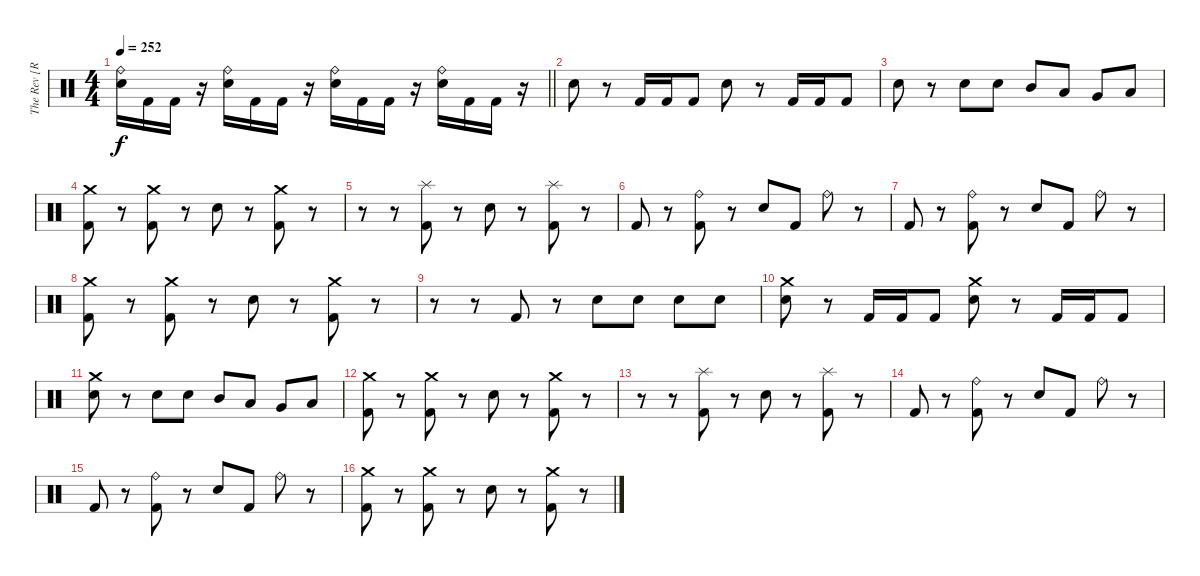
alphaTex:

\track ("The Rev [R.I.P]" "The Rev [R") {instrument percussion}
\staff {score}
\articulation defaults
\ts (4 4)
\tempo 252
\clef neutral
\barLineRight lightlight
\ks c
("Ride (bell)" "Electric Snare (hit)").16{dy f} "Kick (hit) 2".16 "Kick (hit) 2".16 r.16 ("Ride (bell)" "Electric Snare (hit)").16 "Kick (hit) 2".16 "Kick (hit) 2".16 r.16 ("Ride (bell)" "Electric Snare (hit)").16 "Kick (hit) 2".16 "Kick (hit) 2".16 r.16 ("Ride (bell)" "Electric Snare (hit)").16 "Kick (hit) 2".16 "Kick (hit) 2".16 r.16 |
"Electric Snare (hit)".8 r.8 "Kick (hit) 2".16 "Kick (hit) 2".16 "Kick (hit) 2".8 "Electric Snare (hit)".8 r.8 "Kick (hit) 2".16 "Kick (hit) 2".16 "Kick (hit) 2".8 |
"Electric Snare (hit)".8 r.8 "Electric Snare (hit)".8 "Electric Snare (hit)".8 "Mid Tom (hit)".8 "Low Tom (hit)".8 "Very Low Tom (hit)".8 "Low Floor Tom (hit)".8 |
("Crash medium (hit)" "Kick (hit) 2").8 r.8 ("Crash medium (hit)" "Kick (hit) 2").8 r.8 "Electric Snare (hit)".8 r.8 ("Crash medium (hit)" "Kick (hit) 2").8 r.8 |
r.8 r.8 ("Splash (hit)" "Kick (hit) 2").8 r.8 "Electric Snare (hit)".8 r.8 ("Splash (hit)" "Kick (hit) 2").8 r.8 |
"Kick (hit) 2".8 r.8 ("Ride (bell)" "Kick (hit) 2").8 r.8 "Electric Snare (hit)".8 "Kick (hit) 2".8 "Ride (bell)".8 r.8 |
"Kick (hit) 2".8 r.8 ("Ride (bell)" "Kick (hit) 2").8 r.8 "Electric Snare (hit)".8 "Kick (hit) 2".8 "Ride (bell)".8 r.8 |
("Crash medium (hit)" "Kick (hit) 2").8 r.8 ("Crash medium (hit)" "Kick (hit) 2").8 r.8 "Electric Snare (hit)".8 r.8 ("Crash medium (hit)" "Kick (hit) 2").8 r.8 |
r.8 r.8 "Kick (hit) 2".8 r.8 "Electric Snare (hit)".8 "Electric Snare (hit)".8 "Electric Snare (hit)".8 "Electric Snare (hit)".8 |
("Crash medium (hit)" "Electric Snare (hit)").8 r.8 "Kick (hit) 2".16 "Kick (hit) 2".16 "Kick (hit) 2".8 ("Crash medium (hit)" "Electric Snare (hit)").8 r.8 "Kick (hit) 2".16 "Kick (hit) 2".16 "Kick (hit) 2".8 |
("Crash medium (hit)" "Electric Snare (hit)").8 r.8 "Electric Snare (hit)".8 "Electric Snare (hit)".8 "Mid Tom (hit)".8 "Low Tom (hit)".8 "Very Low Tom (hit)".8 "Low Floor Tom (hit)".8 |
("Crash medium (hit)" "Kick (hit) 2").8 r.8 ("Crash medium (hit)" "Kick (hit) 2").8 r.8 "Electric Snare (hit)".8 r.8 ("Crash medium (hit)" "Kick (hit) 2").8 r.8 |
r.8 r.8 ("Splash (hit)" "Kick (hit) 2").8 r.8 "Electric Snare (hit)".8 r.8 ("Splash (hit)" "Kick (hit) 2").8 r.8 |
"Kick (hit) 2".8 r.8 ("Ride (bell)" "Kick (hit) 2").8 r.8 "Electric Snare (hit)".8 "Kick (hit) 2".8 "Ride (bell)".8 r.8 |
"Kick (hit) 2".8 r.8 ("Ride (bell)" "Kick (hit) 2").8 r.8 "Electric Snare (hit)".8 "Kick (hit) 2".8 "Ride (bell)".8 r.8 |
("Crash medium (hit)" "Kick (hit) 2").8 r.8 ("Crash medium (hit)" "Kick (hit) 2").8 r.8 "Electric Snare (hit)".8 r.8 ("Crash medium (hit)" "Kick (hit) 2").8 r.8
